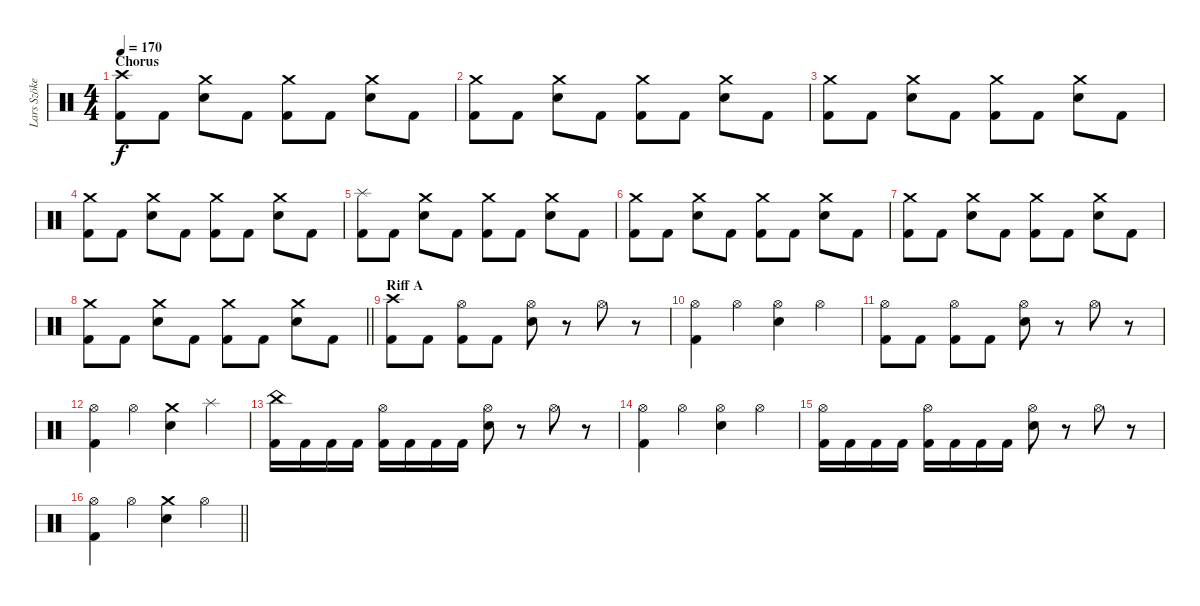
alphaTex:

\track ("Lars Szöke" "Lars Szöke") {instrument percussion}
\staff {score}
\articulation defaults
\ts (4 4)
\section ("" "Chorus")
\tempo 170
\clef neutral
\ks c
("Crash high (hit)" "Kick (hit) 2").8{dy f} "Kick (hit) 2".8 ("Crash medium (hit)" "Snare (hit) 2").8 "Kick (hit) 2".8 ("Crash medium (hit)" "Kick (hit) 2").8 "Kick (hit) 2".8 ("Crash medium (hit)" "Snare (hit) 2").8 "Kick (hit) 2".8 |
("Crash medium (hit)" "Kick (hit) 2").8 "Kick (hit) 2".8 ("Crash medium (hit)" "Snare (hit) 2").8 "Kick (hit) 2".8 ("Crash medium (hit)" "Kick (hit) 2").8 "Kick (hit) 2".8 ("Crash medium (hit)" "Snare (hit) 2").8 "Kick (hit) 2".8 |
("Crash medium (hit)" "Kick (hit) 2").8 "Kick (hit) 2".8 ("Crash medium (hit)" "Snare (hit) 2").8 "Kick (hit) 2".8 ("Crash medium (hit)" "Kick (hit) 2").8 "Kick (hit) 2".8 ("Crash medium (hit)" "Snare (hit) 2").8 "Kick (hit) 2".8 |
("Crash medium (hit)" "Kick (hit) 2").8 "Kick (hit) 2".8 ("Crash medium (hit)" "Snare (hit) 2").8 "Kick (hit) 2".8 ("Crash medium (hit)" "Kick (hit) 2").8 "Kick (hit) 2".8 ("Crash medium (hit)" "Snare (hit) 2").8 "Kick (hit) 2".8 |
("Splash (hit)" "Kick (hit) 2").8 "Kick (hit) 2".8 ("Crash medium (hit)" "Snare (hit) 2").8 "Kick (hit) 2".8 ("Crash medium (hit)" "Kick (hit) 2").8 "Kick (hit) 2".8 ("Crash medium (hit)" "Snare (hit) 2").8 "Kick (hit) 2".8 |
("Crash medium (hit)" "Kick (hit) 2").8 "Kick (hit) 2".8 ("Crash medium (hit)" "Snare (hit) 2").8 "Kick (hit) 2".8 ("Crash medium (hit)" "Kick (hit) 2").8 "Kick (hit) 2".8 ("Crash medium (hit)" "Snare (hit) 2").8 "Kick (hit) 2".8 |
("Crash medium (hit)" "Kick (hit) 2").8 "Kick (hit) 2".8 ("Crash medium (hit)" "Snare (hit) 2").8 "Kick (hit) 2".8 ("Crash medium (hit)" "Kick (hit) 2").8 "Kick (hit) 2".8 ("Crash medium (hit)" "Snare (hit) 2").8 "Kick (hit) 2".8 |
\barLineRight lightlight
("Crash medium (hit)" "Kick (hit) 2").8 "Kick (hit) 2".8 ("Crash medium (hit)" "Snare (hit) 2").8 "Kick (hit) 2".8 ("Crash medium (hit)" "Kick (hit) 2").8 "Kick (hit) 2".8 ("Crash medium (hit)" "Snare (hit) 2").8 "Kick (hit) 2".8 |
\section ("" "Riff A")
("Crash high (hit)" "Kick (hit) 2").8 "Kick (hit) 2".8 ("Hi-Hat (open)" "Kick (hit) 2").8 "Kick (hit) 2".8 ("Hi-Hat (open)" "Snare (hit) 2").8 r.8 "Hi-Hat (open)".8 r.8 |
("Hi-Hat (open)" "Kick (hit) 2").4 "Hi-Hat (open)".4 ("Hi-Hat (open)" "Snare (hit) 2").4 "Hi-Hat (open)".4 |
("Hi-Hat (open)" "Kick (hit) 2").8 "Kick (hit) 2".8 ("Hi-Hat (open)" "Kick (hit) 2").8 "Kick (hit) 2".8 ("Hi-Hat (open)" "Snare (hit) 2").8 r.8 "Hi-Hat (open)".8 r.8 |
("Hi-Hat (open)" "Kick (hit) 2").4 "Hi-Hat (open)".4 ("Crash medium (hit)" "Snare (hit) 2").4 "Splash (hit)".4 |
("China (hit)" "Kick (hit) 2").16 "Kick (hit) 2".16 "Kick (hit) 2".16 "Kick (hit) 2".16 ("Hi-Hat (open)" "Kick (hit) 2").16 "Kick (hit) 2".16 "Kick (hit) 2".16 "Kick (hit) 2".16 ("Hi-Hat (open)" "Snare (hit) 2").8 r.8 "Hi-Hat (open)".8 r.8 |
("Hi-Hat (open)" "Kick (hit) 2").4 "Hi-Hat (open)".4 ("Hi-Hat (open)" "Snare (hit) 2").4 "Hi-Hat (open)".4 |
("Hi-Hat (open)" "Kick (hit) 2").16 "Kick (hit) 2".16 "Kick (hit) 2".16 "Kick (hit) 2".16 ("Hi-Hat (open)" "Kick (hit) 2").16 "Kick (hit) 2".16 "Kick (hit) 2".16 "Kick (hit) 2".16 ("Hi-Hat (open)" "Snare (hit) 2").8 r.8 "Hi-Hat (open)".8 r.8 |
\barLineRight lightlight
("Hi-Hat (open)" "Kick (hit) 2").4 "Hi-Hat (open)".4 ("Crash medium (hit)" "Snare (hit) 2").4 "Hi-Hat (open)".4
